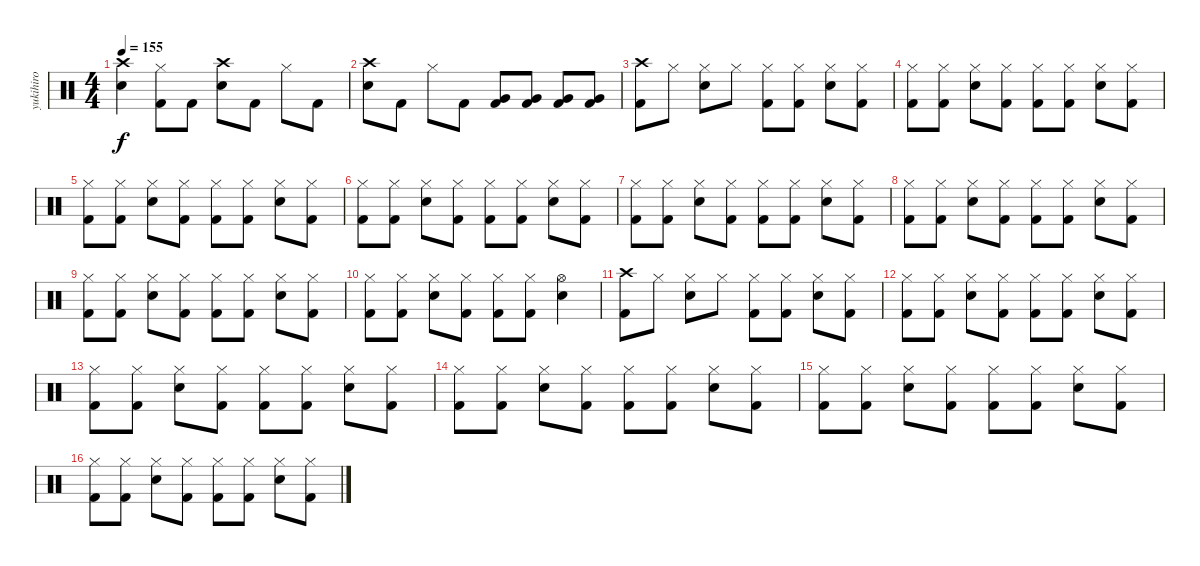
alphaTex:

\track ("yukihiro" "yukihiro") {instrument percussion}
\staff {score}
\articulation defaults
\ts (4 4)
\tempo 155
\clef neutral
\ks c
("Crash high (hit)" "Snare (hit) 2").4{dy f} ("Hi-Hat (closed)" "Kick (hit) 2").8 "Kick (hit) 2".8 ("Crash high (hit)" "Snare (hit) 2").8 "Kick (hit) 2".8 "Hi-Hat (closed)".8 "Kick (hit) 2".8 |
("Crash high (hit)" "Snare (hit) 2").8 "Kick (hit) 2".8 "Hi-Hat (closed)".8 "Kick (hit) 2".8 ("Very Low Tom (hit)" "Kick (hit) 2").8 ("Very Low Tom (hit)" "Kick (hit) 2").8 ("Very Low Tom (hit)" "Kick (hit) 2").8 ("Very Low Tom (hit)" "Kick (hit) 2").8 |
("Crash high (hit)" "Kick (hit) 2").8 "Hi-Hat (closed)".8 ("Hi-Hat (closed)" "Snare (hit) 2").8 "Hi-Hat (closed)".8 ("Hi-Hat (closed)" "Kick (hit) 2").8 ("Hi-Hat (closed)" "Kick (hit) 2").8 ("Hi-Hat (closed)" "Snare (hit) 2").8 ("Hi-Hat (closed)" "Kick (hit) 2").8 |
("Hi-Hat (closed)" "Kick (hit) 2").8 ("Hi-Hat (closed)" "Kick (hit) 2").8 ("Hi-Hat (closed)" "Snare (hit) 2").8 ("Hi-Hat (closed)" "Kick (hit) 2").8 ("Hi-Hat (closed)" "Kick (hit) 2").8 ("Hi-Hat (closed)" "Kick (hit) 2").8 ("Hi-Hat (closed)" "Snare (hit) 2").8 ("Hi-Hat (closed)" "Kick (hit) 2").8 |
("Hi-Hat (closed)" "Kick (hit) 2").8 ("Hi-Hat (closed)" "Kick (hit) 2").8 ("Hi-Hat (closed)" "Snare (hit) 2").8 ("Hi-Hat (closed)" "Kick (hit) 2").8 ("Hi-Hat (closed)" "Kick (hit) 2").8 ("Hi-Hat (closed)" "Kick (hit) 2").8 ("Hi-Hat (closed)" "Snare (hit) 2").8 ("Hi-Hat (closed)" "Kick (hit) 2").8 |
("Hi-Hat (closed)" "Kick (hit) 2").8 ("Hi-Hat (closed)" "Kick (hit) 2").8 ("Hi-Hat (closed)" "Snare (hit) 2").8 ("Hi-Hat (closed)" "Kick (hit) 2").8 ("Hi-Hat (closed)" "Kick (hit) 2").8 ("Hi-Hat (closed)" "Kick (hit) 2").8 ("Hi-Hat (closed)" "Snare (hit) 2").8 ("Hi-Hat (closed)" "Kick (hit) 2").8 |
("Hi-Hat (closed)" "Kick (hit) 2").8 ("Hi-Hat (closed)" "Kick (hit) 2").8 ("Hi-Hat (closed)" "Snare (hit) 2").8 ("Hi-Hat (closed)" "Kick (hit) 2").8 ("Hi-Hat (closed)" "Kick (hit) 2").8 ("Hi-Hat (closed)" "Kick (hit) 2").8 ("Hi-Hat (closed)" "Snare (hit) 2").8 ("Hi-Hat (closed)" "Kick (hit) 2").8 |
("Hi-Hat (closed)" "Kick (hit) 2").8 ("Hi-Hat (closed)" "Kick (hit) 2").8 ("Hi-Hat (closed)" "Snare (hit) 2").8 ("Hi-Hat (closed)" "Kick (hit) 2").8 ("Hi-Hat (closed)" "Kick (hit) 2").8 ("Hi-Hat (closed)" "Kick (hit) 2").8 ("Hi-Hat (closed)" "Snare (hit) 2").8 ("Hi-Hat (closed)" "Kick (hit) 2").8 |
("Hi-Hat (closed)" "Kick (hit) 2").8 ("Hi-Hat (closed)" "Kick (hit) 2").8 ("Hi-Hat (closed)" "Snare (hit) 2").8 ("Hi-Hat (closed)" "Kick (hit) 2").8 ("Hi-Hat (closed)" "Kick (hit) 2").8 ("Hi-Hat (closed)" "Kick (hit) 2").8 ("Hi-Hat (closed)" "Snare (hit) 2").8 ("Hi-Hat (closed)" "Kick (hit) 2").8 |
("Hi-Hat (closed)" "Kick (hit) 2").8 ("Hi-Hat (closed)" "Kick (hit) 2").8 ("Hi-Hat (closed)" "Snare (hit) 2").8 ("Hi-Hat (closed)" "Kick (hit) 2").8 ("Hi-Hat (closed)" "Kick (hit) 2").8 ("Hi-Hat (closed)" "Kick (hit) 2").8 ("Hi-Hat (open)" "Snare (hit) 2").4 |
("Crash high (hit)" "Kick (hit) 2").8 "Hi-Hat (closed)".8 ("Hi-Hat (closed)" "Snare (hit) 2").8 "Hi-Hat (closed)".8 ("Hi-Hat (closed)" "Kick (hit) 2").8 ("Hi-Hat (closed)" "Kick (hit) 2").8 ("Hi-Hat (closed)" "Snare (hit) 2").8 ("Hi-Hat (closed)" "Kick (hit) 2").8 |
("Hi-Hat (closed)" "Kick (hit) 2").8 ("Hi-Hat (closed)" "Kick (hit) 2").8 ("Hi-Hat (closed)" "Snare (hit) 2").8 ("Hi-Hat (closed)" "Kick (hit) 2").8 ("Hi-Hat (closed)" "Kick (hit) 2").8 ("Hi-Hat (closed)" "Kick (hit) 2").8 ("Hi-Hat (closed)" "Snare (hit) 2").8 ("Hi-Hat (closed)" "Kick (hit) 2").8 |
("Hi-Hat (closed)" "Kick (hit) 2").8 ("Hi-Hat (closed)" "Kick (hit) 2").8 ("Hi-Hat (closed)" "Snare (hit) 2").8 ("Hi-Hat (closed)" "Kick (hit) 2").8 ("Hi-Hat (closed)" "Kick (hit) 2").8 ("Hi-Hat (closed)" "Kick (hit) 2").8 ("Hi-Hat (closed)" "Snare (hit) 2").8 ("Hi-Hat (closed)" "Kick (hit) 2").8 |
("Hi-Hat (closed)" "Kick (hit) 2").8 ("Hi-Hat (closed)" "Kick (hit) 2").8 ("Hi-Hat (closed)" "Snare (hit) 2").8 ("Hi-Hat (closed)" "Kick (hit) 2").8 ("Hi-Hat (closed)" "Kick (hit) 2").8 ("Hi-Hat (closed)" "Kick (hit) 2").8 ("Hi-Hat (closed)" "Snare (hit) 2").8 ("Hi-Hat (closed)" "Kick (hit) 2").8 |
("Hi-Hat (closed)" "Kick (hit) 2").8 ("Hi-Hat (closed)" "Kick (hit) 2").8 ("Hi-Hat (closed)" "Snare (hit) 2").8 ("Hi-Hat (closed)" "Kick (hit) 2").8 ("Hi-Hat (closed)" "Kick (hit) 2").8 ("Hi-Hat (closed)" "Kick (hit) 2").8 ("Hi-Hat (closed)" "Snare (hit) 2").8 ("Hi-Hat (closed)" "Kick (hit) 2").8 |
("Hi-Hat (closed)" "Kick (hit) 2").8 ("Hi-Hat (closed)" "Kick (hit) 2").8 ("Hi-Hat (closed)" "Snare (hit) 2").8 ("Hi-Hat (closed)" "Kick (hit) 2").8 ("Hi-Hat (closed)" "Kick (hit) 2").8 ("Hi-Hat (closed)" "Kick (hit) 2").8 ("Hi-Hat (closed)" "Snare (hit) 2").8 ("Hi-Hat (closed)" "Kick (hit) 2").8
